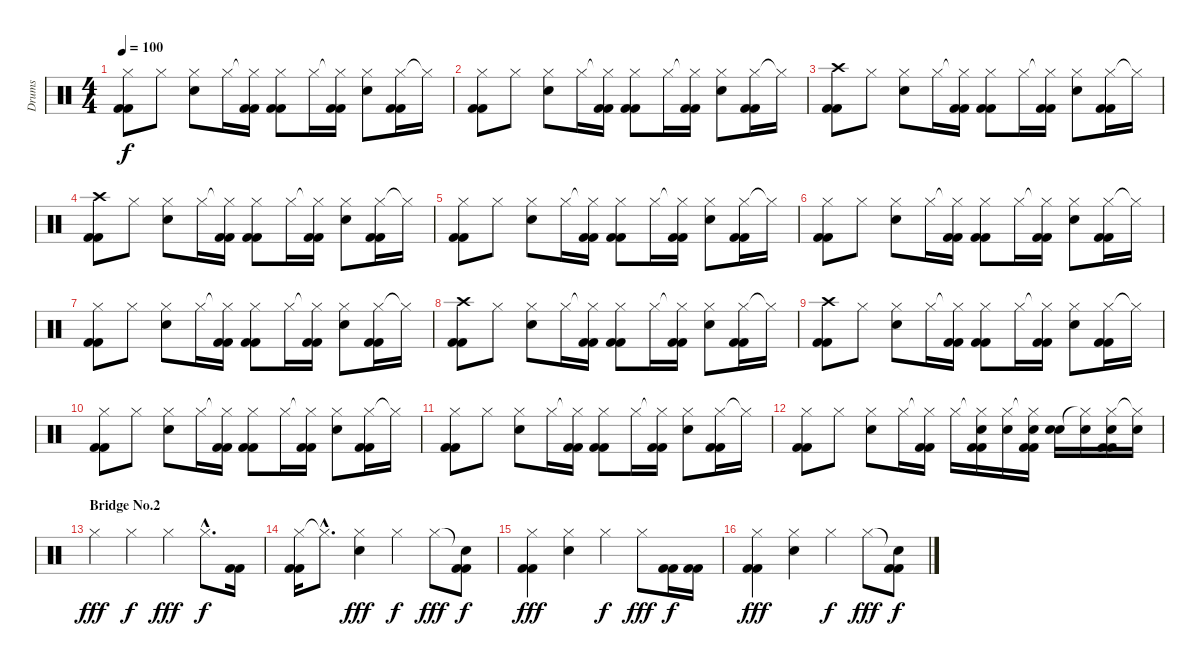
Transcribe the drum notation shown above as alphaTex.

\track ("Drums" "Drums") {instrument percussion}
\staff {score}
\articulation defaults
\ts (4 4)
\tempo 100
\clef neutral
\ks c
("Hi-Hat (closed)" "Kick (hit) 2" "Kick (hit) 2").8{dy f} "Hi-Hat (closed)".8 ("Hi-Hat (closed)" "Electric Snare (hit)").8 "Hi-Hat (closed)".16 ("Hi-Hat (closed)"{t} "Kick (hit) 2" "Kick (hit) 2").16 ("Hi-Hat (closed)" "Kick (hit) 2" "Kick (hit) 2").8 "Hi-Hat (closed)".16 ("Hi-Hat (closed)"{t} "Kick (hit) 2" "Kick (hit) 2").16 ("Hi-Hat (closed)" "Electric Snare (hit)").8 ("Hi-Hat (closed)" "Kick (hit) 2" "Kick (hit) 2").16 "Hi-Hat (closed)"{t}.16 |
("Hi-Hat (closed)" "Kick (hit) 2" "Kick (hit) 2").8 "Hi-Hat (closed)".8 ("Hi-Hat (closed)" "Electric Snare (hit)").8 "Hi-Hat (closed)".16 ("Hi-Hat (closed)"{t} "Kick (hit) 2" "Kick (hit) 2").16 ("Hi-Hat (closed)" "Kick (hit) 2" "Kick (hit) 2").8 "Hi-Hat (closed)".16 ("Hi-Hat (closed)"{t} "Kick (hit) 2" "Kick (hit) 2").16 ("Hi-Hat (closed)" "Electric Snare (hit)").8 ("Hi-Hat (closed)" "Kick (hit) 2" "Kick (hit) 2").16 "Hi-Hat (closed)"{t}.16 |
("Crash high (hit)" "Kick (hit) 2" "Kick (hit) 2").8 "Hi-Hat (closed)".8 ("Hi-Hat (closed)" "Electric Snare (hit)").8 "Hi-Hat (closed)".16 ("Hi-Hat (closed)"{t} "Kick (hit) 2" "Kick (hit) 2").16 ("Hi-Hat (closed)" "Kick (hit) 2" "Kick (hit) 2").8 "Hi-Hat (closed)".16 ("Hi-Hat (closed)"{t} "Kick (hit) 2" "Kick (hit) 2").16 ("Hi-Hat (closed)" "Electric Snare (hit)").8 ("Hi-Hat (closed)" "Kick (hit) 2" "Kick (hit) 2").16 "Hi-Hat (closed)"{t}.16 |
("Crash high (hit)" "Kick (hit) 2" "Kick (hit) 2").8 "Hi-Hat (closed)".8 ("Hi-Hat (closed)" "Electric Snare (hit)").8 "Hi-Hat (closed)".16 ("Hi-Hat (closed)"{t} "Kick (hit) 2" "Kick (hit) 2").16 ("Hi-Hat (closed)" "Kick (hit) 2" "Kick (hit) 2").8 "Hi-Hat (closed)".16 ("Hi-Hat (closed)"{t} "Kick (hit) 2" "Kick (hit) 2").16 ("Hi-Hat (closed)" "Electric Snare (hit)").8 ("Hi-Hat (closed)" "Kick (hit) 2" "Kick (hit) 2").16 "Hi-Hat (closed)"{t}.16 |
("Hi-Hat (closed)" "Kick (hit) 2" "Kick (hit) 2").8 "Hi-Hat (closed)".8 ("Hi-Hat (closed)" "Electric Snare (hit)").8 "Hi-Hat (closed)".16 ("Hi-Hat (closed)"{t} "Kick (hit) 2" "Kick (hit) 2").16 ("Hi-Hat (closed)" "Kick (hit) 2" "Kick (hit) 2").8 "Hi-Hat (closed)".16 ("Hi-Hat (closed)"{t} "Kick (hit) 2" "Kick (hit) 2").16 ("Hi-Hat (closed)" "Electric Snare (hit)").8 ("Hi-Hat (closed)" "Kick (hit) 2" "Kick (hit) 2").16 "Hi-Hat (closed)"{t}.16 |
("Hi-Hat (closed)" "Kick (hit) 2" "Kick (hit) 2").8 "Hi-Hat (closed)".8 ("Hi-Hat (closed)" "Electric Snare (hit)").8 "Hi-Hat (closed)".16 ("Hi-Hat (closed)"{t} "Kick (hit) 2" "Kick (hit) 2").16 ("Hi-Hat (closed)" "Kick (hit) 2" "Kick (hit) 2").8 "Hi-Hat (closed)".16 ("Hi-Hat (closed)"{t} "Kick (hit) 2" "Kick (hit) 2").16 ("Hi-Hat (closed)" "Electric Snare (hit)").8 ("Hi-Hat (closed)" "Kick (hit) 2" "Kick (hit) 2").16 "Hi-Hat (closed)"{t}.16 |
("Hi-Hat (closed)" "Kick (hit) 2" "Kick (hit) 2").8 "Hi-Hat (closed)".8 ("Hi-Hat (closed)" "Electric Snare (hit)").8 "Hi-Hat (closed)".16 ("Hi-Hat (closed)"{t} "Kick (hit) 2" "Kick (hit) 2").16 ("Hi-Hat (closed)" "Kick (hit) 2" "Kick (hit) 2").8 "Hi-Hat (closed)".16 ("Hi-Hat (closed)"{t} "Kick (hit) 2" "Kick (hit) 2").16 ("Hi-Hat (closed)" "Electric Snare (hit)").8 ("Hi-Hat (closed)" "Kick (hit) 2" "Kick (hit) 2").16 "Hi-Hat (closed)"{t}.16 |
("Crash high (hit)" "Kick (hit) 2" "Kick (hit) 2").8 "Hi-Hat (closed)".8 ("Hi-Hat (closed)" "Electric Snare (hit)").8 "Hi-Hat (closed)".16 ("Hi-Hat (closed)"{t} "Kick (hit) 2" "Kick (hit) 2").16 ("Hi-Hat (closed)" "Kick (hit) 2" "Kick (hit) 2").8 "Hi-Hat (closed)".16 ("Hi-Hat (closed)"{t} "Kick (hit) 2" "Kick (hit) 2").16 ("Hi-Hat (closed)" "Electric Snare (hit)").8 ("Hi-Hat (closed)" "Kick (hit) 2" "Kick (hit) 2").16 "Hi-Hat (closed)"{t}.16 |
("Crash high (hit)" "Kick (hit) 2" "Kick (hit) 2").8 "Hi-Hat (closed)".8 ("Hi-Hat (closed)" "Electric Snare (hit)").8 "Hi-Hat (closed)".16 ("Hi-Hat (closed)"{t} "Kick (hit) 2" "Kick (hit) 2").16 ("Hi-Hat (closed)" "Kick (hit) 2" "Kick (hit) 2").8 "Hi-Hat (closed)".16 ("Hi-Hat (closed)"{t} "Kick (hit) 2" "Kick (hit) 2").16 ("Hi-Hat (closed)" "Electric Snare (hit)").8 ("Hi-Hat (closed)" "Kick (hit) 2" "Kick (hit) 2").16 "Hi-Hat (closed)"{t}.16 |
("Hi-Hat (closed)" "Kick (hit) 2" "Kick (hit) 2").8 "Hi-Hat (closed)".8 ("Hi-Hat (closed)" "Electric Snare (hit)").8 "Hi-Hat (closed)".16 ("Hi-Hat (closed)"{t} "Kick (hit) 2" "Kick (hit) 2").16 ("Hi-Hat (closed)" "Kick (hit) 2" "Kick (hit) 2").8 "Hi-Hat (closed)".16 ("Hi-Hat (closed)"{t} "Kick (hit) 2" "Kick (hit) 2").16 ("Hi-Hat (closed)" "Electric Snare (hit)").8 ("Hi-Hat (closed)" "Kick (hit) 2" "Kick (hit) 2").16 "Hi-Hat (closed)"{t}.16 |
("Hi-Hat (closed)" "Kick (hit) 2" "Kick (hit) 2").8 "Hi-Hat (closed)".8 ("Hi-Hat (closed)" "Electric Snare (hit)").8 "Hi-Hat (closed)".16 ("Hi-Hat (closed)"{t} "Kick (hit) 2" "Kick (hit) 2").16 ("Hi-Hat (closed)" "Kick (hit) 2" "Kick (hit) 2").8 "Hi-Hat (closed)".16 ("Hi-Hat (closed)"{t} "Kick (hit) 2" "Kick (hit) 2").16 ("Hi-Hat (closed)" "Electric Snare (hit)").8 ("Hi-Hat (closed)" "Kick (hit) 2" "Kick (hit) 2").16 "Hi-Hat (closed)"{t}.16 |
("Hi-Hat (closed)" "Kick (hit) 2" "Kick (hit) 2").8 "Hi-Hat (closed)".8 ("Hi-Hat (closed)" "Electric Snare (hit)").8 "Hi-Hat (closed)".16 ("Hi-Hat (closed)"{t} "Kick (hit) 2" "Kick (hit) 2").16 "Hi-Hat (closed)".16 ("Hi-Hat (closed)"{t} "Electric Snare (hit)" "Kick (hit) 2" "Kick (hit) 2").16 ("Hi-Hat (closed)" "Electric Snare (hit)").16 ("Hi-Hat (closed)"{t} "Electric Snare (hit)" "Kick (hit) 2" "Kick (hit) 2").16 ("Electric Snare (hit)" "Electric Snare (hit)").16 ("Hi-Hat (closed)"{t} "Electric Snare (hit)").16 ("Hi-Hat (closed)" "Electric Snare (hit)" "Kick (hit) 2" "Kick (hit) 2").16 ("Hi-Hat (closed)"{t} "Electric Snare (hit)").16 |
\section ("" "Bridge No.2")
"Hi-Hat (closed)".4{dy fff} "Hi-Hat (closed)".4{dy f} "Hi-Hat (closed)".4{dy fff} "Hi-Hat (closed)"{hac}.8{d dy f} ("Kick (hit) 2" "Kick (hit) 2").16 |
("Hi-Hat (closed)" "Kick (hit) 2" "Kick (hit) 2").16 "Hi-Hat (closed)"{hac t}.8{d} ("Hi-Hat (closed)" "Electric Snare (hit)").4{dy fff} "Hi-Hat (closed)".4{dy f} "Hi-Hat (closed)".8{dy fff} ("Snare (hit)"{t} "Kick (hit) 2" "Kick (hit) 2").8{dy f} |
("Hi-Hat (closed)" "Kick (hit) 2" "Kick (hit) 2").4{dy fff} ("Hi-Hat (closed)" "Electric Snare (hit)").4 "Hi-Hat (closed)".4{dy f} "Hi-Hat (closed)".8{dy fff} ("Kick (hit) 2" "Kick (hit) 2").16{dy f} ("Kick (hit) 2" "Kick (hit) 2").16 |
("Hi-Hat (closed)" "Kick (hit) 2" "Kick (hit) 2").4{dy fff} ("Hi-Hat (closed)" "Electric Snare (hit)").4 "Hi-Hat (closed)".4{dy f} "Hi-Hat (closed)".8{dy fff} ("Snare (hit)"{t} "Kick (hit) 2" "Kick (hit) 2").8{dy f}
